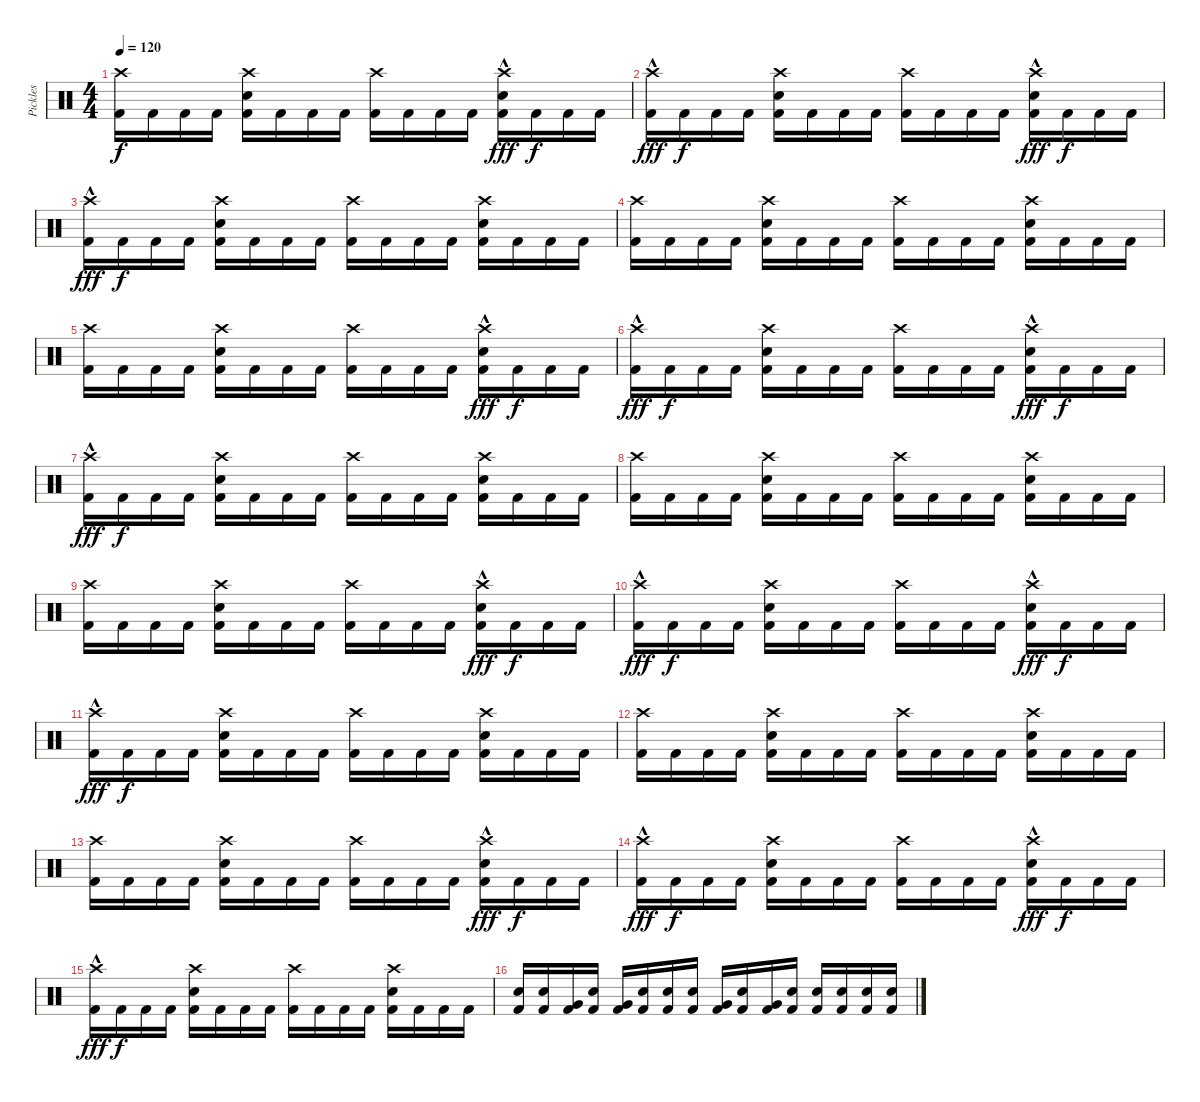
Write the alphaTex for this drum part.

\track ("Pickles" "Pickles") {instrument percussion}
\staff {score}
\articulation defaults
\ts (4 4)
\tempo 120
\clef neutral
\ks c
("Crash high (hit)" "Kick (hit) 2").16{dy f} "Kick (hit) 2".16 "Kick (hit) 2".16 "Kick (hit) 2".16 ("Crash high (hit)" "Snare (hit) 2" "Kick (hit) 2").16 "Kick (hit) 2".16 "Kick (hit) 2".16 "Kick (hit) 2".16 ("Crash high (hit)" "Kick (hit) 2").16 "Kick (hit) 2".16 "Kick (hit) 2".16 "Kick (hit) 2".16 ("Crash high (hit)"{hac} "Snare (hit) 2" "Kick (hit) 2").16{dy fff} "Kick (hit) 2".16{dy f} "Kick (hit) 2".16 "Kick (hit) 2".16 |
("Crash high (hit)"{hac} "Kick (hit) 2").16{dy fff} "Kick (hit) 2".16{dy f} "Kick (hit) 2".16 "Kick (hit) 2".16 ("Crash high (hit)" "Snare (hit) 2" "Kick (hit) 2").16 "Kick (hit) 2".16 "Kick (hit) 2".16 "Kick (hit) 2".16 ("Crash high (hit)" "Kick (hit) 2").16 "Kick (hit) 2".16 "Kick (hit) 2".16 "Kick (hit) 2".16 ("Crash high (hit)"{hac} "Snare (hit) 2" "Kick (hit) 2").16{dy fff} "Kick (hit) 2".16{dy f} "Kick (hit) 2".16 "Kick (hit) 2".16 |
("Crash high (hit)"{hac} "Kick (hit) 2").16{dy fff} "Kick (hit) 2".16{dy f} "Kick (hit) 2".16 "Kick (hit) 2".16 ("Crash high (hit)" "Snare (hit) 2" "Kick (hit) 2").16 "Kick (hit) 2".16 "Kick (hit) 2".16 "Kick (hit) 2".16 ("Crash high (hit)" "Kick (hit) 2").16 "Kick (hit) 2".16 "Kick (hit) 2".16 "Kick (hit) 2".16 ("Crash high (hit)" "Snare (hit) 2" "Kick (hit) 2").16 "Kick (hit) 2".16 "Kick (hit) 2".16 "Kick (hit) 2".16 |
("Crash high (hit)" "Kick (hit) 2").16 "Kick (hit) 2".16 "Kick (hit) 2".16 "Kick (hit) 2".16 ("Crash high (hit)" "Snare (hit) 2" "Kick (hit) 2").16 "Kick (hit) 2".16 "Kick (hit) 2".16 "Kick (hit) 2".16 ("Crash high (hit)" "Kick (hit) 2").16 "Kick (hit) 2".16 "Kick (hit) 2".16 "Kick (hit) 2".16 ("Crash high (hit)" "Snare (hit) 2" "Kick (hit) 2").16 "Kick (hit) 2".16 "Kick (hit) 2".16 "Kick (hit) 2".16 |
("Crash high (hit)" "Kick (hit) 2").16 "Kick (hit) 2".16 "Kick (hit) 2".16 "Kick (hit) 2".16 ("Crash high (hit)" "Snare (hit) 2" "Kick (hit) 2").16 "Kick (hit) 2".16 "Kick (hit) 2".16 "Kick (hit) 2".16 ("Crash high (hit)" "Kick (hit) 2").16 "Kick (hit) 2".16 "Kick (hit) 2".16 "Kick (hit) 2".16 ("Crash high (hit)"{hac} "Snare (hit) 2" "Kick (hit) 2").16{dy fff} "Kick (hit) 2".16{dy f} "Kick (hit) 2".16 "Kick (hit) 2".16 |
("Crash high (hit)"{hac} "Kick (hit) 2").16{dy fff} "Kick (hit) 2".16{dy f} "Kick (hit) 2".16 "Kick (hit) 2".16 ("Crash high (hit)" "Snare (hit) 2" "Kick (hit) 2").16 "Kick (hit) 2".16 "Kick (hit) 2".16 "Kick (hit) 2".16 ("Crash high (hit)" "Kick (hit) 2").16 "Kick (hit) 2".16 "Kick (hit) 2".16 "Kick (hit) 2".16 ("Crash high (hit)"{hac} "Snare (hit) 2" "Kick (hit) 2").16{dy fff} "Kick (hit) 2".16{dy f} "Kick (hit) 2".16 "Kick (hit) 2".16 |
("Crash high (hit)"{hac} "Kick (hit) 2").16{dy fff} "Kick (hit) 2".16{dy f} "Kick (hit) 2".16 "Kick (hit) 2".16 ("Crash high (hit)" "Snare (hit) 2" "Kick (hit) 2").16 "Kick (hit) 2".16 "Kick (hit) 2".16 "Kick (hit) 2".16 ("Crash high (hit)" "Kick (hit) 2").16 "Kick (hit) 2".16 "Kick (hit) 2".16 "Kick (hit) 2".16 ("Crash high (hit)" "Snare (hit) 2" "Kick (hit) 2").16 "Kick (hit) 2".16 "Kick (hit) 2".16 "Kick (hit) 2".16 |
("Crash high (hit)" "Kick (hit) 2").16 "Kick (hit) 2".16 "Kick (hit) 2".16 "Kick (hit) 2".16 ("Crash high (hit)" "Snare (hit) 2" "Kick (hit) 2").16 "Kick (hit) 2".16 "Kick (hit) 2".16 "Kick (hit) 2".16 ("Crash high (hit)" "Kick (hit) 2").16 "Kick (hit) 2".16 "Kick (hit) 2".16 "Kick (hit) 2".16 ("Crash high (hit)" "Snare (hit) 2" "Kick (hit) 2").16 "Kick (hit) 2".16 "Kick (hit) 2".16 "Kick (hit) 2".16 |
("Crash high (hit)" "Kick (hit) 2").16 "Kick (hit) 2".16 "Kick (hit) 2".16 "Kick (hit) 2".16 ("Crash high (hit)" "Snare (hit) 2" "Kick (hit) 2").16 "Kick (hit) 2".16 "Kick (hit) 2".16 "Kick (hit) 2".16 ("Crash high (hit)" "Kick (hit) 2").16 "Kick (hit) 2".16 "Kick (hit) 2".16 "Kick (hit) 2".16 ("Crash high (hit)"{hac} "Snare (hit) 2" "Kick (hit) 2").16{dy fff} "Kick (hit) 2".16{dy f} "Kick (hit) 2".16 "Kick (hit) 2".16 |
("Crash high (hit)"{hac} "Kick (hit) 2").16{dy fff} "Kick (hit) 2".16{dy f} "Kick (hit) 2".16 "Kick (hit) 2".16 ("Crash high (hit)" "Snare (hit) 2" "Kick (hit) 2").16 "Kick (hit) 2".16 "Kick (hit) 2".16 "Kick (hit) 2".16 ("Crash high (hit)" "Kick (hit) 2").16 "Kick (hit) 2".16 "Kick (hit) 2".16 "Kick (hit) 2".16 ("Crash high (hit)"{hac} "Snare (hit) 2" "Kick (hit) 2").16{dy fff} "Kick (hit) 2".16{dy f} "Kick (hit) 2".16 "Kick (hit) 2".16 |
("Crash high (hit)"{hac} "Kick (hit) 2").16{dy fff} "Kick (hit) 2".16{dy f} "Kick (hit) 2".16 "Kick (hit) 2".16 ("Crash high (hit)" "Snare (hit) 2" "Kick (hit) 2").16 "Kick (hit) 2".16 "Kick (hit) 2".16 "Kick (hit) 2".16 ("Crash high (hit)" "Kick (hit) 2").16 "Kick (hit) 2".16 "Kick (hit) 2".16 "Kick (hit) 2".16 ("Crash high (hit)" "Snare (hit) 2" "Kick (hit) 2").16 "Kick (hit) 2".16 "Kick (hit) 2".16 "Kick (hit) 2".16 |
("Crash high (hit)" "Kick (hit) 2").16 "Kick (hit) 2".16 "Kick (hit) 2".16 "Kick (hit) 2".16 ("Crash high (hit)" "Snare (hit) 2" "Kick (hit) 2").16 "Kick (hit) 2".16 "Kick (hit) 2".16 "Kick (hit) 2".16 ("Crash high (hit)" "Kick (hit) 2").16 "Kick (hit) 2".16 "Kick (hit) 2".16 "Kick (hit) 2".16 ("Crash high (hit)" "Snare (hit) 2" "Kick (hit) 2").16 "Kick (hit) 2".16 "Kick (hit) 2".16 "Kick (hit) 2".16 |
("Crash high (hit)" "Kick (hit) 2").16 "Kick (hit) 2".16 "Kick (hit) 2".16 "Kick (hit) 2".16 ("Crash high (hit)" "Snare (hit) 2" "Kick (hit) 2").16 "Kick (hit) 2".16 "Kick (hit) 2".16 "Kick (hit) 2".16 ("Crash high (hit)" "Kick (hit) 2").16 "Kick (hit) 2".16 "Kick (hit) 2".16 "Kick (hit) 2".16 ("Crash high (hit)"{hac} "Snare (hit) 2" "Kick (hit) 2").16{dy fff} "Kick (hit) 2".16{dy f} "Kick (hit) 2".16 "Kick (hit) 2".16 |
("Crash high (hit)"{hac} "Kick (hit) 2").16{dy fff} "Kick (hit) 2".16{dy f} "Kick (hit) 2".16 "Kick (hit) 2".16 ("Crash high (hit)" "Snare (hit) 2" "Kick (hit) 2").16 "Kick (hit) 2".16 "Kick (hit) 2".16 "Kick (hit) 2".16 ("Crash high (hit)" "Kick (hit) 2").16 "Kick (hit) 2".16 "Kick (hit) 2".16 "Kick (hit) 2".16 ("Crash high (hit)"{hac} "Snare (hit) 2" "Kick (hit) 2").16{dy fff} "Kick (hit) 2".16{dy f} "Kick (hit) 2".16 "Kick (hit) 2".16 |
("Crash high (hit)"{hac} "Kick (hit) 2").16{dy fff} "Kick (hit) 2".16{dy f} "Kick (hit) 2".16 "Kick (hit) 2".16 ("Crash high (hit)" "Snare (hit) 2" "Kick (hit) 2").16 "Kick (hit) 2".16 "Kick (hit) 2".16 "Kick (hit) 2".16 ("Crash high (hit)" "Kick (hit) 2").16 "Kick (hit) 2".16 "Kick (hit) 2".16 "Kick (hit) 2".16 ("Crash high (hit)" "Snare (hit) 2" "Kick (hit) 2").16 "Kick (hit) 2".16 "Kick (hit) 2".16 "Kick (hit) 2".16 |
("Snare (hit) 2" "Kick (hit) 2").16 ("Snare (hit) 2" "Kick (hit) 2").16 ("Very Low Tom (hit)" "Kick (hit) 2").16 ("Snare (hit) 2" "Kick (hit) 2").16 ("Very Low Tom (hit)" "Kick (hit) 2").16 ("Snare (hit) 2" "Kick (hit) 2").16 ("Snare (hit) 2" "Kick (hit) 2").16 ("Snare (hit) 2" "Kick (hit) 2").16 ("Very Low Tom (hit)" "Kick (hit) 2").16 ("Snare (hit) 2" "Kick (hit) 2").16 ("Very Low Tom (hit)" "Kick (hit) 2").16 ("Snare (hit) 2" "Kick (hit) 2").16 ("Snare (hit) 2" "Kick (hit) 2").16 ("Snare (hit) 2" "Kick (hit) 2").16 ("Snare (hit) 2" "Kick (hit) 2").16 ("Snare (hit) 2" "Kick (hit) 2").16
